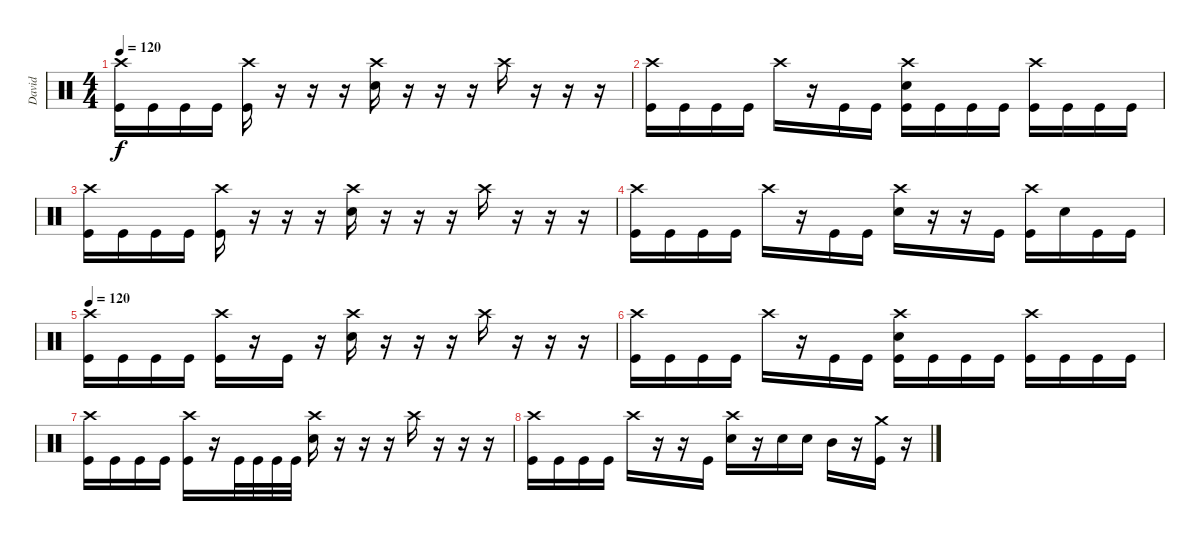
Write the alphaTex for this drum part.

\track ("David" "David") {instrument percussion}
\staff {score}
\articulation defaults
\ts (4 4)
\tempo 120
\clef neutral
\ks c
("Crash high (hit)" "Kick (hit)").16{dy f} "Kick (hit)".16 "Kick (hit)".16 "Kick (hit)".16 ("Crash high (hit)" "Kick (hit)").16 r.16 r.16 r.16 ("Crash high (hit)" "Electric Snare (hit)").16 r.16 r.16 r.16 "Crash high (hit)".16 r.16 r.16 r.16 |
("Crash high (hit)" "Kick (hit)").16 "Kick (hit)".16 "Kick (hit)".16 "Kick (hit)".16 "Crash high (hit)".16 r.16 "Kick (hit)".16 "Kick (hit)".16 ("Crash high (hit)" "Electric Snare (hit)" "Kick (hit)").16 "Kick (hit)".16 "Kick (hit)".16 "Kick (hit)".16 ("Crash high (hit)" "Kick (hit)").16 "Kick (hit)".16 "Kick (hit)".16 "Kick (hit)".16 |
("Crash high (hit)" "Kick (hit)").16 "Kick (hit)".16 "Kick (hit)".16 "Kick (hit)".16 ("Crash high (hit)" "Kick (hit)").16 r.16 r.16 r.16 ("Crash high (hit)" "Electric Snare (hit)").16 r.16 r.16 r.16 "Crash high (hit)".16 r.16 r.16 r.16 |
("Crash high (hit)" "Kick (hit)").16 "Kick (hit)".16 "Kick (hit)".16 "Kick (hit)".16 "Crash high (hit)".16 r.16 "Kick (hit)".16 "Kick (hit)".16 ("Crash high (hit)" "Electric Snare (hit)").16 r.16 r.16 "Kick (hit)".16 ("Crash high (hit)" "Kick (hit)").16 "Electric Snare (hit)".16 "Kick (hit)".16 "Kick (hit)".16 |
\tempo 120
("Crash high (hit)" "Kick (hit)").16 "Kick (hit)".16 "Kick (hit)".16 "Kick (hit)".16 ("Crash high (hit)" "Kick (hit)").16 r.16 "Kick (hit)".16 r.16 ("Crash high (hit)" "Electric Snare (hit)").16 r.16 r.16 r.16 "Crash high (hit)".16 r.16 r.16 r.16 |
("Crash high (hit)" "Kick (hit)").16 "Kick (hit)".16 "Kick (hit)".16 "Kick (hit)".16 "Crash high (hit)".16 r.16 "Kick (hit)".16 "Kick (hit)".16 ("Crash high (hit)" "Electric Snare (hit)" "Kick (hit)").16 "Kick (hit)".16 "Kick (hit)".16 "Kick (hit)".16 ("Crash high (hit)" "Kick (hit)").16 "Kick (hit)".16 "Kick (hit)".16 "Kick (hit)".16 |
("Crash high (hit)" "Kick (hit)").16 "Kick (hit)".16 "Kick (hit)".16 "Kick (hit)".16 ("Crash high (hit)" "Kick (hit)").16 r.16 "Kick (hit)".32 "Kick (hit)".32 "Kick (hit)".32 "Kick (hit)".32 ("Crash high (hit)" "Electric Snare (hit)").16 r.16 r.16 r.16 "Crash high (hit)".16 r.16 r.16 r.16 |
("Crash high (hit)" "Kick (hit)").16 "Kick (hit)".16 "Kick (hit)".16 "Kick (hit)".16 "Crash high (hit)".16 r.16 r.16 "Kick (hit)".16 ("Crash high (hit)" "Electric Snare (hit)").16 r.16 "Electric Snare (hit)".16 "Electric Snare (hit)".16 "Mid Tom (hit)".16 r.16 ("Crash medium (hit)" "Kick (hit)").16 r.16
